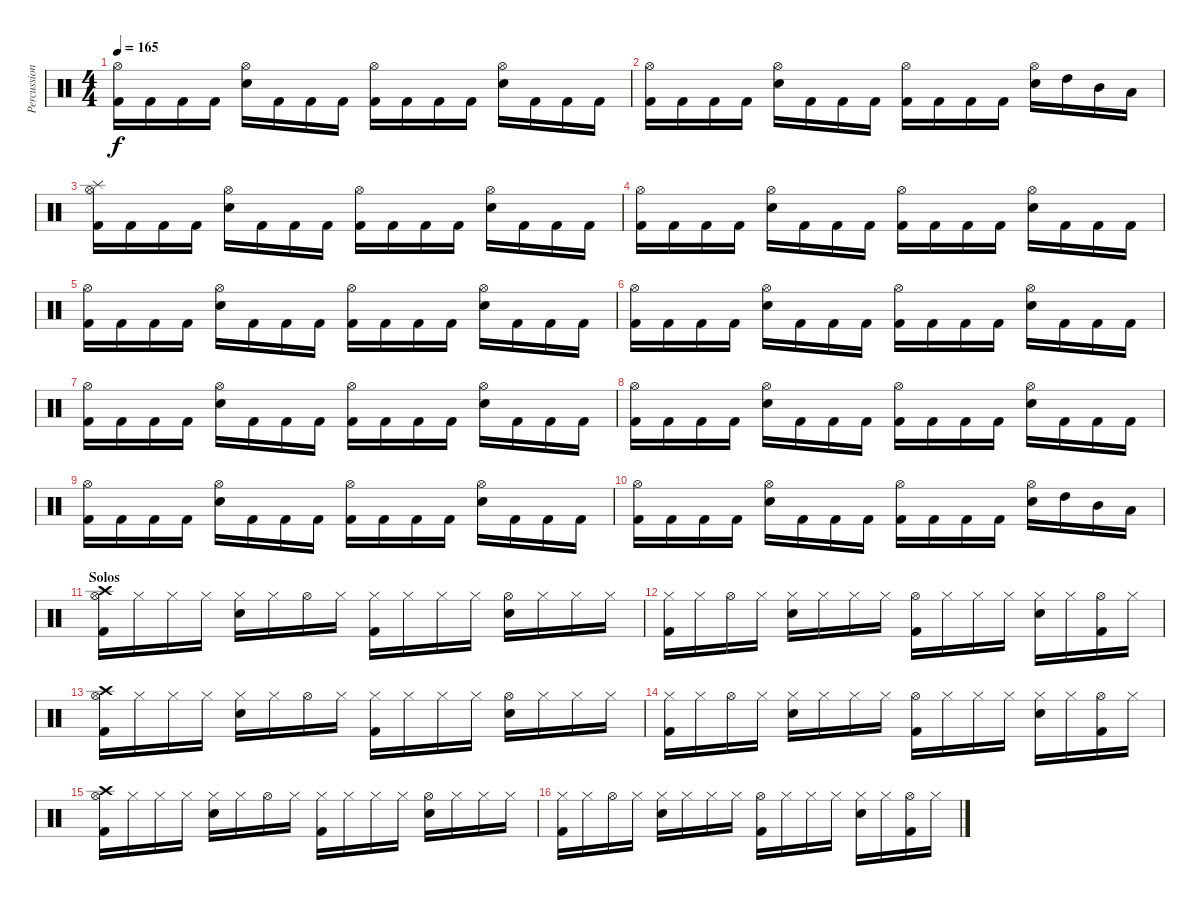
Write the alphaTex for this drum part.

\track ("Percussions" "Percussion") {instrument percussion}
\staff {score}
\articulation defaults
\ts (4 4)
\tempo 165
\clef neutral
\ks c
("Hi-Hat (open)" "Kick (hit) 2").16{dy f} "Kick (hit) 2".16 "Kick (hit) 2".16 "Kick (hit) 2".16 ("Hi-Hat (open)" "Electric Snare (hit)").16 "Kick (hit) 2".16 "Kick (hit) 2".16 "Kick (hit) 2".16 ("Hi-Hat (open)" "Kick (hit) 2").16 "Kick (hit) 2".16 "Kick (hit) 2".16 "Kick (hit) 2".16 ("Hi-Hat (open)" "Electric Snare (hit)").16 "Kick (hit) 2".16 "Kick (hit) 2".16 "Kick (hit) 2".16 |
("Hi-Hat (open)" "Kick (hit) 2").16 "Kick (hit) 2".16 "Kick (hit) 2".16 "Kick (hit) 2".16 ("Hi-Hat (open)" "Electric Snare (hit)").16 "Kick (hit) 2".16 "Kick (hit) 2".16 "Kick (hit) 2".16 ("Hi-Hat (open)" "Kick (hit) 2").16 "Kick (hit) 2".16 "Kick (hit) 2".16 "Kick (hit) 2".16 ("Hi-Hat (open)" "Electric Snare (hit)").16 "High Tom (hit)".16 "Mid Tom (hit)".16 "Low Tom (hit)".16 |
("Splash (hit)" "Hi-Hat (open)" "Kick (hit) 2").16 "Kick (hit) 2".16 "Kick (hit) 2".16 "Kick (hit) 2".16 ("Hi-Hat (open)" "Electric Snare (hit)").16 "Kick (hit) 2".16 "Kick (hit) 2".16 "Kick (hit) 2".16 ("Hi-Hat (open)" "Kick (hit) 2").16 "Kick (hit) 2".16 "Kick (hit) 2".16 "Kick (hit) 2".16 ("Hi-Hat (open)" "Electric Snare (hit)").16 "Kick (hit) 2".16 "Kick (hit) 2".16 "Kick (hit) 2".16 |
("Hi-Hat (open)" "Kick (hit) 2").16 "Kick (hit) 2".16 "Kick (hit) 2".16 "Kick (hit) 2".16 ("Hi-Hat (open)" "Electric Snare (hit)").16 "Kick (hit) 2".16 "Kick (hit) 2".16 "Kick (hit) 2".16 ("Hi-Hat (open)" "Kick (hit) 2").16 "Kick (hit) 2".16 "Kick (hit) 2".16 "Kick (hit) 2".16 ("Hi-Hat (open)" "Electric Snare (hit)").16 "Kick (hit) 2".16 "Kick (hit) 2".16 "Kick (hit) 2".16 |
("Hi-Hat (open)" "Kick (hit) 2").16 "Kick (hit) 2".16 "Kick (hit) 2".16 "Kick (hit) 2".16 ("Hi-Hat (open)" "Electric Snare (hit)").16 "Kick (hit) 2".16 "Kick (hit) 2".16 "Kick (hit) 2".16 ("Hi-Hat (open)" "Kick (hit) 2").16 "Kick (hit) 2".16 "Kick (hit) 2".16 "Kick (hit) 2".16 ("Hi-Hat (open)" "Electric Snare (hit)").16 "Kick (hit) 2".16 "Kick (hit) 2".16 "Kick (hit) 2".16 |
("Hi-Hat (open)" "Kick (hit) 2").16 "Kick (hit) 2".16 "Kick (hit) 2".16 "Kick (hit) 2".16 ("Hi-Hat (open)" "Electric Snare (hit)").16 "Kick (hit) 2".16 "Kick (hit) 2".16 "Kick (hit) 2".16 ("Hi-Hat (open)" "Kick (hit) 2").16 "Kick (hit) 2".16 "Kick (hit) 2".16 "Kick (hit) 2".16 ("Hi-Hat (open)" "Electric Snare (hit)").16 "Kick (hit) 2".16 "Kick (hit) 2".16 "Kick (hit) 2".16 |
("Hi-Hat (open)" "Kick (hit) 2").16 "Kick (hit) 2".16 "Kick (hit) 2".16 "Kick (hit) 2".16 ("Hi-Hat (open)" "Electric Snare (hit)").16 "Kick (hit) 2".16 "Kick (hit) 2".16 "Kick (hit) 2".16 ("Hi-Hat (open)" "Kick (hit) 2").16 "Kick (hit) 2".16 "Kick (hit) 2".16 "Kick (hit) 2".16 ("Hi-Hat (open)" "Electric Snare (hit)").16 "Kick (hit) 2".16 "Kick (hit) 2".16 "Kick (hit) 2".16 |
("Hi-Hat (open)" "Kick (hit) 2").16 "Kick (hit) 2".16 "Kick (hit) 2".16 "Kick (hit) 2".16 ("Hi-Hat (open)" "Electric Snare (hit)").16 "Kick (hit) 2".16 "Kick (hit) 2".16 "Kick (hit) 2".16 ("Hi-Hat (open)" "Kick (hit) 2").16 "Kick (hit) 2".16 "Kick (hit) 2".16 "Kick (hit) 2".16 ("Hi-Hat (open)" "Electric Snare (hit)").16 "Kick (hit) 2".16 "Kick (hit) 2".16 "Kick (hit) 2".16 |
("Hi-Hat (open)" "Kick (hit) 2").16 "Kick (hit) 2".16 "Kick (hit) 2".16 "Kick (hit) 2".16 ("Hi-Hat (open)" "Electric Snare (hit)").16 "Kick (hit) 2".16 "Kick (hit) 2".16 "Kick (hit) 2".16 ("Hi-Hat (open)" "Kick (hit) 2").16 "Kick (hit) 2".16 "Kick (hit) 2".16 "Kick (hit) 2".16 ("Hi-Hat (open)" "Electric Snare (hit)").16 "Kick (hit) 2".16 "Kick (hit) 2".16 "Kick (hit) 2".16 |
("Hi-Hat (open)" "Kick (hit) 2").16 "Kick (hit) 2".16 "Kick (hit) 2".16 "Kick (hit) 2".16 ("Hi-Hat (open)" "Electric Snare (hit)").16 "Kick (hit) 2".16 "Kick (hit) 2".16 "Kick (hit) 2".16 ("Hi-Hat (open)" "Kick (hit) 2").16 "Kick (hit) 2".16 "Kick (hit) 2".16 "Kick (hit) 2".16 ("Hi-Hat (open)" "Electric Snare (hit)").16 "High Tom (hit)".16 "Mid Tom (hit)".16 "Low Tom (hit)".16 |
\section ("" "Solos")
("Hi-Hat (open)" "Crash high (hit)" "Kick (hit) 2").16 "Hi-Hat (closed)".16 "Hi-Hat (closed)".16 "Hi-Hat (closed)".16 ("Hi-Hat (closed)" "Electric Snare (hit)").16 "Hi-Hat (closed)".16 "Hi-Hat (open)".16 "Hi-Hat (closed)".16 ("Hi-Hat (closed)" "Kick (hit) 2").16 "Hi-Hat (closed)".16 "Hi-Hat (closed)".16 "Hi-Hat (closed)".16 ("Hi-Hat (open)" "Electric Snare (hit)").16 "Hi-Hat (closed)".16 "Hi-Hat (closed)".16 "Hi-Hat (closed)".16 |
("Hi-Hat (closed)" "Kick (hit) 2").16 "Hi-Hat (closed)".16 "Hi-Hat (open)".16 "Hi-Hat (closed)".16 ("Hi-Hat (closed)" "Electric Snare (hit)").16 "Hi-Hat (closed)".16 "Hi-Hat (closed)".16 "Hi-Hat (closed)".16 ("Hi-Hat (open)" "Kick (hit) 2").16 "Hi-Hat (closed)".16 "Hi-Hat (closed)".16 "Hi-Hat (closed)".16 ("Hi-Hat (closed)" "Electric Snare (hit)").16 "Hi-Hat (closed)".16 ("Hi-Hat (open)" "Kick (hit) 2").16 "Hi-Hat (closed)".16 |
("Hi-Hat (open)" "Crash high (hit)" "Kick (hit) 2").16 "Hi-Hat (closed)".16 "Hi-Hat (closed)".16 "Hi-Hat (closed)".16 ("Hi-Hat (closed)" "Electric Snare (hit)").16 "Hi-Hat (closed)".16 "Hi-Hat (open)".16 "Hi-Hat (closed)".16 ("Hi-Hat (closed)" "Kick (hit) 2").16 "Hi-Hat (closed)".16 "Hi-Hat (closed)".16 "Hi-Hat (closed)".16 ("Hi-Hat (open)" "Electric Snare (hit)").16 "Hi-Hat (closed)".16 "Hi-Hat (closed)".16 "Hi-Hat (closed)".16 |
("Hi-Hat (closed)" "Kick (hit) 2").16 "Hi-Hat (closed)".16 "Hi-Hat (open)".16 "Hi-Hat (closed)".16 ("Hi-Hat (closed)" "Electric Snare (hit)").16 "Hi-Hat (closed)".16 "Hi-Hat (closed)".16 "Hi-Hat (closed)".16 ("Hi-Hat (open)" "Kick (hit) 2").16 "Hi-Hat (closed)".16 "Hi-Hat (closed)".16 "Hi-Hat (closed)".16 ("Hi-Hat (closed)" "Electric Snare (hit)").16 "Hi-Hat (closed)".16 ("Hi-Hat (open)" "Kick (hit) 2").16 "Hi-Hat (closed)".16 |
("Hi-Hat (open)" "Crash high (hit)" "Kick (hit) 2").16 "Hi-Hat (closed)".16 "Hi-Hat (closed)".16 "Hi-Hat (closed)".16 ("Hi-Hat (closed)" "Electric Snare (hit)").16 "Hi-Hat (closed)".16 "Hi-Hat (open)".16 "Hi-Hat (closed)".16 ("Hi-Hat (closed)" "Kick (hit) 2").16 "Hi-Hat (closed)".16 "Hi-Hat (closed)".16 "Hi-Hat (closed)".16 ("Hi-Hat (open)" "Electric Snare (hit)").16 "Hi-Hat (closed)".16 "Hi-Hat (closed)".16 "Hi-Hat (closed)".16 |
("Hi-Hat (closed)" "Kick (hit) 2").16 "Hi-Hat (closed)".16 "Hi-Hat (open)".16 "Hi-Hat (closed)".16 ("Hi-Hat (closed)" "Electric Snare (hit)").16 "Hi-Hat (closed)".16 "Hi-Hat (closed)".16 "Hi-Hat (closed)".16 ("Hi-Hat (open)" "Kick (hit) 2").16 "Hi-Hat (closed)".16 "Hi-Hat (closed)".16 "Hi-Hat (closed)".16 ("Hi-Hat (closed)" "Electric Snare (hit)").16 "Hi-Hat (closed)".16 ("Hi-Hat (open)" "Kick (hit) 2").16 "Hi-Hat (closed)".16
